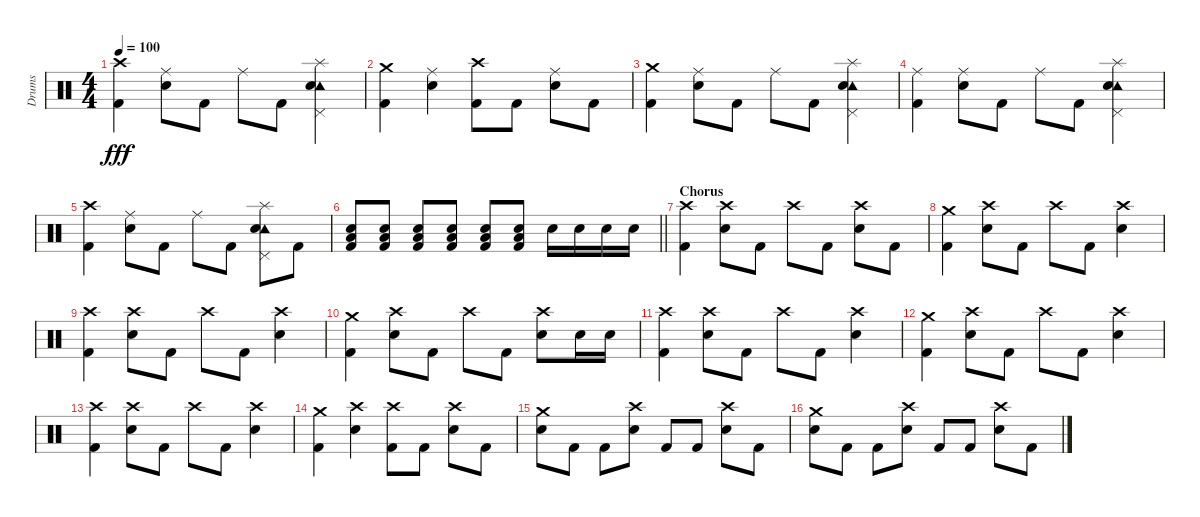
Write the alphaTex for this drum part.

\track ("Drums" "Drums") {instrument percussion}
\staff {score}
\articulation defaults
\ts (4 4)
\tempo 100
\clef neutral
\ks c
("Crash high (hit)" "Kick (hit) 2").4{dy fff} ("Ride (middle)" "Snare (hit) 2").8 "Kick (hit) 2".8 "Ride (middle)".8 "Kick (hit) 2".8 ("Tambourine (hit)" "Pedal Hi-Hat (hit)" "Splash (hit)" "Snare (hit) 2").4 |
("Crash medium (hit)" "Kick (hit) 2").4 ("Ride (middle)" "Snare (hit) 2").4 ("Crash high (hit)" "Kick (hit) 2").8 "Kick (hit) 2".8 ("Ride (middle)" "Snare (hit) 2").8 "Kick (hit) 2".8 |
("Crash medium (hit)" "Kick (hit) 2").4 ("Ride (middle)" "Snare (hit) 2").8 "Kick (hit) 2".8 "Ride (middle)".8 "Kick (hit) 2".8 ("Tambourine (hit)" "Pedal Hi-Hat (hit)" "Splash (hit)" "Snare (hit) 2").4 |
("Ride (middle)" "Kick (hit) 2").4 ("Ride (middle)" "Snare (hit) 2").8 "Kick (hit) 2".8 "Ride (middle)".8 "Kick (hit) 2".8 ("Tambourine (hit)" "Pedal Hi-Hat (hit)" "Splash (hit)" "Snare (hit) 2").4 |
("Crash high (hit)" "Kick (hit) 2").4 ("Ride (middle)" "Snare (hit) 2").8 "Kick (hit) 2".8 "Ride (middle)".8 "Kick (hit) 2".8 ("Tambourine (hit)" "Pedal Hi-Hat (hit)" "Splash (hit)" "Snare (hit) 2").8 "Kick (hit) 2".8 |
\barLineRight lightlight
("Low Floor Tom (hit)" "Snare (hit) 2" "Kick (hit) 2").8 ("Low Floor Tom (hit)" "Snare (hit) 2" "Kick (hit) 2").8 ("Low Floor Tom (hit)" "Snare (hit) 2" "Kick (hit) 2").8 ("Low Floor Tom (hit)" "Snare (hit) 2" "Kick (hit) 2").8 ("Low Floor Tom (hit)" "Snare (hit) 2" "Kick (hit) 2").8 ("Low Floor Tom (hit)" "Snare (hit) 2" "Kick (hit) 2").8 "Snare (hit) 2".16 "Snare (hit) 2".16 "Snare (hit) 2".16 "Snare (hit) 2".16 |
\section ("" "Chorus")
("Crash high (hit)" "Kick (hit) 2").4 ("Crash high (hit)" "Snare (hit) 2").8 "Kick (hit) 2".8 "Crash high (hit)".8 "Kick (hit) 2".8 ("Crash high (hit)" "Snare (hit) 2").8 "Kick (hit) 2".8 |
("Crash medium (hit)" "Kick (hit) 2").4 ("Crash high (hit)" "Snare (hit) 2").8 "Kick (hit) 2".8 "Crash high (hit)".8 "Kick (hit) 2".8 ("Crash high (hit)" "Snare (hit) 2").4 |
("Crash high (hit)" "Kick (hit) 2").4 ("Crash high (hit)" "Snare (hit) 2").8 "Kick (hit) 2".8 "Crash high (hit)".8 "Kick (hit) 2".8 ("Crash high (hit)" "Snare (hit) 2").4 |
("Crash medium (hit)" "Kick (hit) 2").4 ("Crash high (hit)" "Snare (hit) 2").8 "Kick (hit) 2".8 "Crash high (hit)".8 "Kick (hit) 2".8 ("Crash high (hit)" "Snare (hit) 2").8 "Snare (hit) 2".16 "Snare (hit) 2".16 |
("Crash high (hit)" "Kick (hit) 2").4 ("Crash high (hit)" "Snare (hit) 2").8 "Kick (hit) 2".8 "Crash high (hit)".8 "Kick (hit) 2".8 ("Crash high (hit)" "Snare (hit) 2").4 |
("Crash medium (hit)" "Kick (hit) 2").4 ("Crash high (hit)" "Snare (hit) 2").8 "Kick (hit) 2".8 "Crash high (hit)".8 "Kick (hit) 2".8 ("Crash high (hit)" "Snare (hit) 2").4 |
("Crash high (hit)" "Kick (hit) 2").4 ("Crash high (hit)" "Snare (hit) 2").8 "Kick (hit) 2".8 "Crash high (hit)".8 "Kick (hit) 2".8 ("Crash high (hit)" "Snare (hit) 2").4 |
("Crash medium (hit)" "Kick (hit) 2").4 ("Crash high (hit)" "Snare (hit) 2").4 ("Crash high (hit)" "Kick (hit) 2").8 "Kick (hit) 2".8 ("Crash high (hit)" "Snare (hit) 2").8 "Kick (hit) 2".8 |
("Crash medium (hit)" "Snare (hit) 2").8 "Kick (hit) 2".8 "Kick (hit) 2".8 ("Crash high (hit)" "Snare (hit) 2").8 "Kick (hit) 2".8 "Kick (hit) 2".8 ("Crash high (hit)" "Snare (hit) 2").8 "Kick (hit) 2".8 |
("Crash medium (hit)" "Snare (hit) 2").8 "Kick (hit) 2".8 "Kick (hit) 2".8 ("Crash high (hit)" "Snare (hit) 2").8 "Kick (hit) 2".8 "Kick (hit) 2".8 ("Crash high (hit)" "Snare (hit) 2").8 "Kick (hit) 2".8
